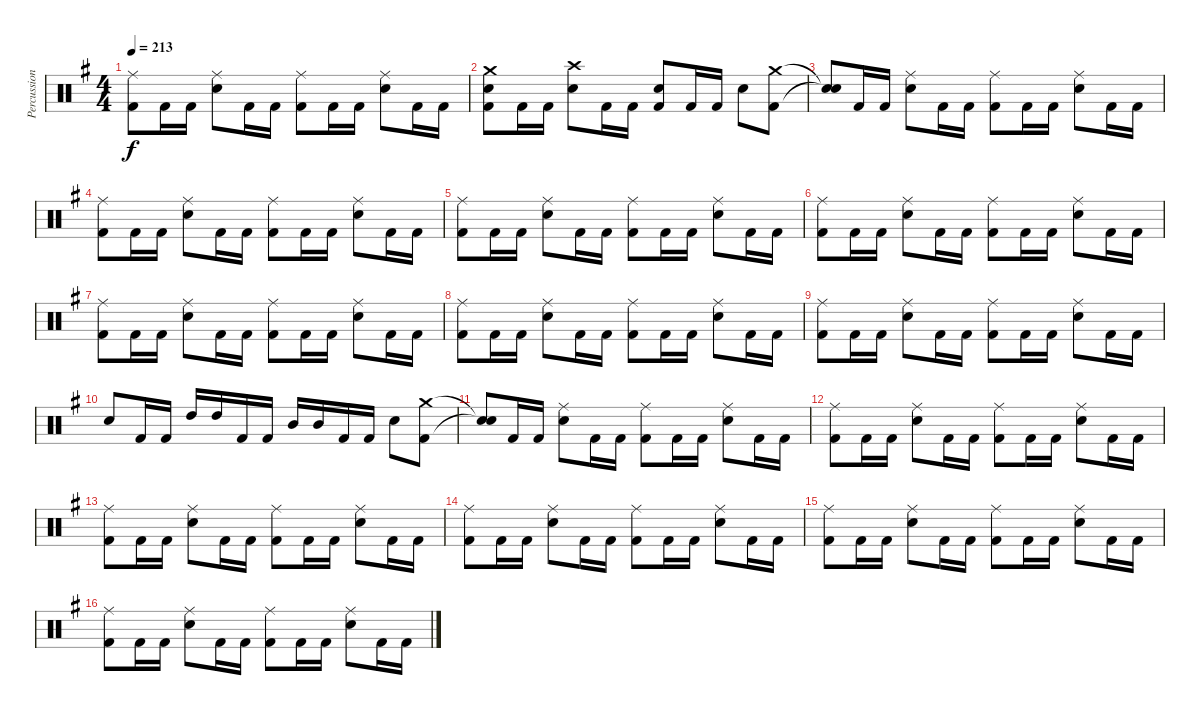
\track ("Percussion" "Percussion") {instrument percussion}
\staff {score}
\articulation defaults
\ts (4 4)
\tempo 213
\clef neutral
\ks eminor
("Ride (middle)" "Kick (hit) 2").8{dy f} "Kick (hit) 2".16 "Kick (hit) 2".16 ("Ride (middle)" "Snare (hit) 2").8 "Kick (hit) 2".16 "Kick (hit) 2".16 ("Ride (middle)" "Kick (hit) 2").8 "Kick (hit) 2".16 "Kick (hit) 2".16 ("Ride (middle)" "Snare (hit) 2").8 "Kick (hit) 2".16 "Kick (hit) 2".16 |
("Crash medium (hit)" "Snare (hit) 2" "Kick (hit) 2").8 "Kick (hit) 2".16 "Kick (hit) 2".16 ("Crash high (hit)" "Snare (hit) 2").8 "Kick (hit) 2".16 "Kick (hit) 2".16 ("Snare (hit) 2" "Kick (hit) 2").8 "Kick (hit) 2".16 "Kick (hit) 2".16 "Snare (hit) 2".8 ("Crash medium (hit)" "Kick (hit) 2").8 |
("Snare (hit)"{t} "Snare (hit)"{t}).8 "Kick (hit) 2".16 "Kick (hit) 2".16 ("Ride (middle)" "Snare (hit) 2").8 "Kick (hit) 2".16 "Kick (hit) 2".16 ("Ride (middle)" "Kick (hit) 2").8 "Kick (hit) 2".16 "Kick (hit) 2".16 ("Ride (middle)" "Snare (hit) 2").8 "Kick (hit) 2".16 "Kick (hit) 2".16 |
("Ride (middle)" "Kick (hit) 2").8 "Kick (hit) 2".16 "Kick (hit) 2".16 ("Ride (middle)" "Snare (hit) 2").8 "Kick (hit) 2".16 "Kick (hit) 2".16 ("Ride (middle)" "Kick (hit) 2").8 "Kick (hit) 2".16 "Kick (hit) 2".16 ("Ride (middle)" "Snare (hit) 2").8 "Kick (hit) 2".16 "Kick (hit) 2".16 |
("Ride (middle)" "Kick (hit) 2").8 "Kick (hit) 2".16 "Kick (hit) 2".16 ("Ride (middle)" "Snare (hit) 2").8 "Kick (hit) 2".16 "Kick (hit) 2".16 ("Ride (middle)" "Kick (hit) 2").8 "Kick (hit) 2".16 "Kick (hit) 2".16 ("Ride (middle)" "Snare (hit) 2").8 "Kick (hit) 2".16 "Kick (hit) 2".16 |
("Ride (middle)" "Kick (hit) 2").8 "Kick (hit) 2".16 "Kick (hit) 2".16 ("Ride (middle)" "Snare (hit) 2").8 "Kick (hit) 2".16 "Kick (hit) 2".16 ("Ride (middle)" "Kick (hit) 2").8 "Kick (hit) 2".16 "Kick (hit) 2".16 ("Ride (middle)" "Snare (hit) 2").8 "Kick (hit) 2".16 "Kick (hit) 2".16 |
("Ride (middle)" "Kick (hit) 2").8 "Kick (hit) 2".16 "Kick (hit) 2".16 ("Ride (middle)" "Snare (hit) 2").8 "Kick (hit) 2".16 "Kick (hit) 2".16 ("Ride (middle)" "Kick (hit) 2").8 "Kick (hit) 2".16 "Kick (hit) 2".16 ("Ride (middle)" "Snare (hit) 2").8 "Kick (hit) 2".16 "Kick (hit) 2".16 |
("Ride (middle)" "Kick (hit) 2").8 "Kick (hit) 2".16 "Kick (hit) 2".16 ("Ride (middle)" "Snare (hit) 2").8 "Kick (hit) 2".16 "Kick (hit) 2".16 ("Ride (middle)" "Kick (hit) 2").8 "Kick (hit) 2".16 "Kick (hit) 2".16 ("Ride (middle)" "Snare (hit) 2").8 "Kick (hit) 2".16 "Kick (hit) 2".16 |
("Ride (middle)" "Kick (hit) 2").8 "Kick (hit) 2".16 "Kick (hit) 2".16 ("Ride (middle)" "Snare (hit) 2").8 "Kick (hit) 2".16 "Kick (hit) 2".16 ("Ride (middle)" "Kick (hit) 2").8 "Kick (hit) 2".16 "Kick (hit) 2".16 ("Ride (middle)" "Snare (hit) 2").8 "Kick (hit) 2".16 "Kick (hit) 2".16 |
"Snare (hit) 2".8 "Kick (hit) 2".16 "Kick (hit) 2".16 "High Tom (hit)".16 "High Tom (hit)".16 "Kick (hit) 2".16 "Kick (hit) 2".16 "Mid Tom (hit)".16 "Mid Tom (hit)".16 "Kick (hit) 2".16 "Kick (hit) 2".16 "Snare (hit) 2".8 ("Crash medium (hit)" "Kick (hit) 2").8 |
("Snare (hit)"{t} "Snare (hit)"{t}).8 "Kick (hit) 2".16 "Kick (hit) 2".16 ("Ride (middle)" "Snare (hit) 2").8 "Kick (hit) 2".16 "Kick (hit) 2".16 ("Ride (middle)" "Kick (hit) 2").8 "Kick (hit) 2".16 "Kick (hit) 2".16 ("Ride (middle)" "Snare (hit) 2").8 "Kick (hit) 2".16 "Kick (hit) 2".16 |
("Ride (middle)" "Kick (hit) 2").8 "Kick (hit) 2".16 "Kick (hit) 2".16 ("Ride (middle)" "Snare (hit) 2").8 "Kick (hit) 2".16 "Kick (hit) 2".16 ("Ride (middle)" "Kick (hit) 2").8 "Kick (hit) 2".16 "Kick (hit) 2".16 ("Ride (middle)" "Snare (hit) 2").8 "Kick (hit) 2".16 "Kick (hit) 2".16 |
("Ride (middle)" "Kick (hit) 2").8 "Kick (hit) 2".16 "Kick (hit) 2".16 ("Ride (middle)" "Snare (hit) 2").8 "Kick (hit) 2".16 "Kick (hit) 2".16 ("Ride (middle)" "Kick (hit) 2").8 "Kick (hit) 2".16 "Kick (hit) 2".16 ("Ride (middle)" "Snare (hit) 2").8 "Kick (hit) 2".16 "Kick (hit) 2".16 |
("Ride (middle)" "Kick (hit) 2").8 "Kick (hit) 2".16 "Kick (hit) 2".16 ("Ride (middle)" "Snare (hit) 2").8 "Kick (hit) 2".16 "Kick (hit) 2".16 ("Ride (middle)" "Kick (hit) 2").8 "Kick (hit) 2".16 "Kick (hit) 2".16 ("Ride (middle)" "Snare (hit) 2").8 "Kick (hit) 2".16 "Kick (hit) 2".16 |
("Ride (middle)" "Kick (hit) 2").8 "Kick (hit) 2".16 "Kick (hit) 2".16 ("Ride (middle)" "Snare (hit) 2").8 "Kick (hit) 2".16 "Kick (hit) 2".16 ("Ride (middle)" "Kick (hit) 2").8 "Kick (hit) 2".16 "Kick (hit) 2".16 ("Ride (middle)" "Snare (hit) 2").8 "Kick (hit) 2".16 "Kick (hit) 2".16 |
("Ride (middle)" "Kick (hit) 2").8 "Kick (hit) 2".16 "Kick (hit) 2".16 ("Ride (middle)" "Snare (hit) 2").8 "Kick (hit) 2".16 "Kick (hit) 2".16 ("Ride (middle)" "Kick (hit) 2").8 "Kick (hit) 2".16 "Kick (hit) 2".16 ("Ride (middle)" "Snare (hit) 2").8 "Kick (hit) 2".16 "Kick (hit) 2".16
